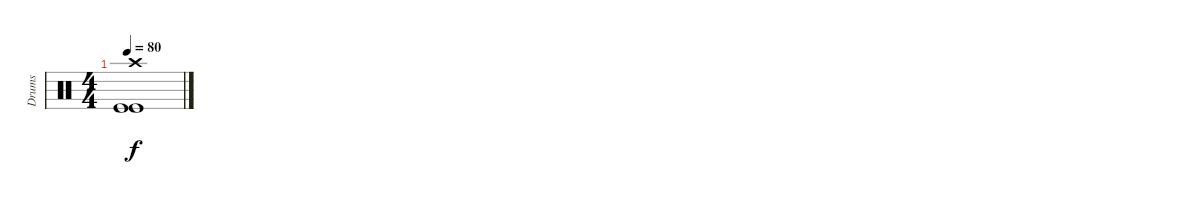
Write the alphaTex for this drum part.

\track ("Drums" "Drums") {instrument percussion}
\staff {score}
\articulation defaults
\ts (4 4)
\tempo 80
\clef neutral
\ks c
("Kick (hit)" "Kick (hit)" "Crash high (hit)").1{dy f}
